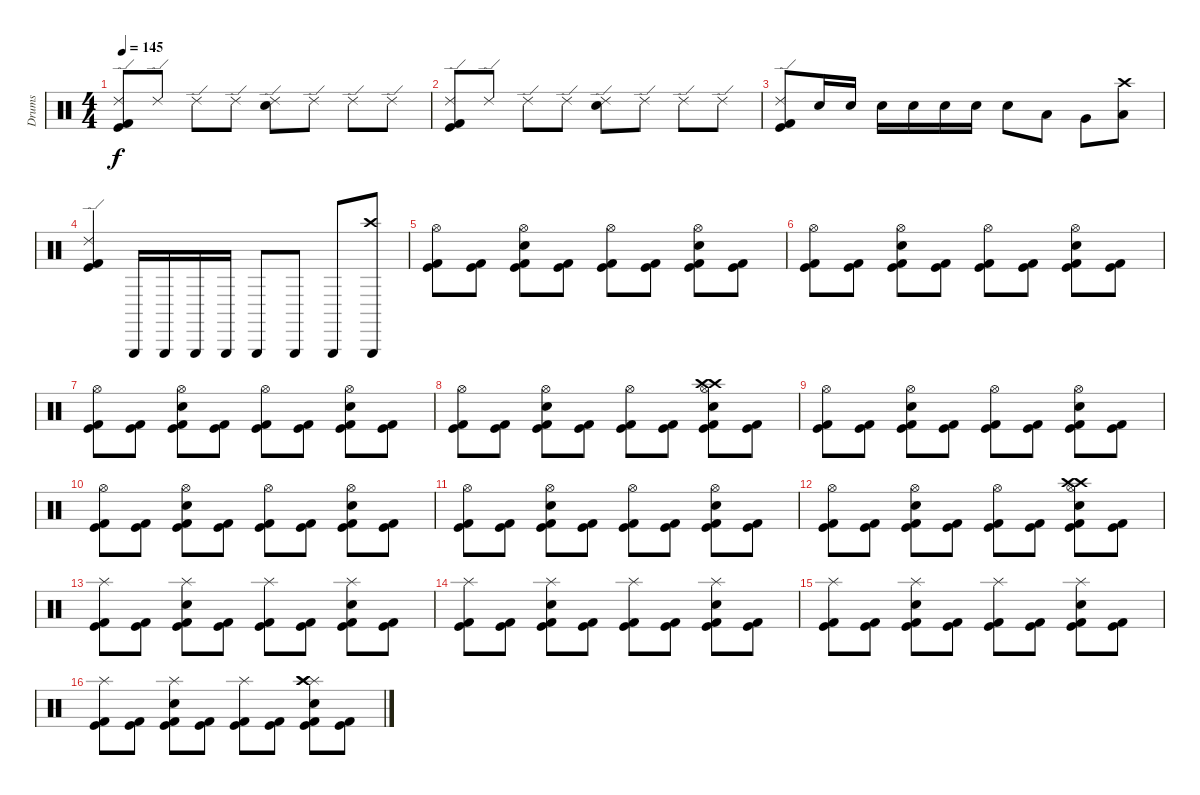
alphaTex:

\track ("Drums" "Drums") {instrument percussion}
\staff {score}
\articulation defaults
\ts (4 4)
\tempo 145
\clef neutral
\ks c
("Ride (edge) 2" "Kick (hit) 2" "Kick (hit)").8{dy f} "Ride (edge) 2".8 "Ride (edge) 2".8 "Ride (edge) 2".8 ("Ride (edge) 2" "Snare (hit) 2").8 "Ride (edge) 2".8 "Ride (edge) 2".8 "Ride (edge) 2".8 |
("Ride (edge) 2" "Kick (hit) 2" "Kick (hit)").8 "Ride (edge) 2".8 "Ride (edge) 2".8 "Ride (edge) 2".8 ("Ride (edge) 2" "Snare (hit) 2").8 "Ride (edge) 2".8 "Ride (edge) 2".8 "Ride (edge) 2".8 |
("Ride (edge) 2" "Kick (hit) 2" "Kick (hit)").8 "Snare (hit) 2".16 "Snare (hit) 2".16 "Snare (hit) 2".16 "Snare (hit) 2".16 "Snare (hit) 2".16 "Snare (hit) 2".16 "Snare (hit) 2".8 "Low Tom (hit)".8 "Very Low Tom (hit)".8 ("Crash high (hit)" "Low Floor Tom (hit)").8 |
("Ride (edge) 2" "Kick (hit) 2" "Kick (hit)").4 "Triangle (hit)".16 "Triangle (hit)".16 "Triangle (hit)".16 "Triangle (hit)".16 "Triangle (hit)".8 "Triangle (hit)".8 "Triangle (hit)".8 ("Triangle (hit)" "Crash high (hit)").8 |
("Hi-Hat (open)" "Kick (hit) 2" "Kick (hit)").8 ("Kick (hit) 2" "Kick (hit)").8 ("Hi-Hat (open)" "Snare (hit) 2" "Kick (hit) 2" "Kick (hit)").8 ("Kick (hit) 2" "Kick (hit)").8 ("Hi-Hat (open)" "Kick (hit) 2" "Kick (hit)").8 ("Kick (hit) 2" "Kick (hit)").8 ("Hi-Hat (open)" "Snare (hit) 2" "Kick (hit) 2" "Kick (hit)").8 ("Kick (hit) 2" "Kick (hit)").8 |
("Hi-Hat (open)" "Kick (hit) 2" "Kick (hit)").8 ("Kick (hit) 2" "Kick (hit)").8 ("Hi-Hat (open)" "Snare (hit) 2" "Kick (hit) 2" "Kick (hit)").8 ("Kick (hit) 2" "Kick (hit)").8 ("Hi-Hat (open)" "Kick (hit) 2" "Kick (hit)").8 ("Kick (hit) 2" "Kick (hit)").8 ("Hi-Hat (open)" "Snare (hit) 2" "Kick (hit) 2" "Kick (hit)").8 ("Kick (hit) 2" "Kick (hit)").8 |
("Hi-Hat (open)" "Kick (hit) 2" "Kick (hit)").8 ("Kick (hit) 2" "Kick (hit)").8 ("Hi-Hat (open)" "Snare (hit) 2" "Kick (hit) 2" "Kick (hit)").8 ("Kick (hit) 2" "Kick (hit)").8 ("Hi-Hat (open)" "Kick (hit) 2" "Kick (hit)").8 ("Kick (hit) 2" "Kick (hit)").8 ("Hi-Hat (open)" "Snare (hit) 2" "Kick (hit) 2" "Kick (hit)").8 ("Kick (hit) 2" "Kick (hit)").8 |
("Hi-Hat (open)" "Kick (hit) 2" "Kick (hit)").8 ("Kick (hit) 2" "Kick (hit)").8 ("Hi-Hat (open)" "Snare (hit) 2" "Kick (hit) 2" "Kick (hit)").8 ("Kick (hit) 2" "Kick (hit)").8 ("Hi-Hat (open)" "Kick (hit) 2" "Kick (hit)").8 ("Kick (hit) 2" "Kick (hit)").8 ("Hi-Hat (open)" "Snare (hit) 2" "Kick (hit) 2" "Kick (hit)" "Crash high (hit)" "Crash high (hit)").8 ("Kick (hit) 2" "Kick (hit)").8 |
("Hi-Hat (open)" "Kick (hit) 2" "Kick (hit)").8 ("Kick (hit) 2" "Kick (hit)").8 ("Hi-Hat (open)" "Snare (hit) 2" "Kick (hit) 2" "Kick (hit)").8 ("Kick (hit) 2" "Kick (hit)").8 ("Hi-Hat (open)" "Kick (hit) 2" "Kick (hit)").8 ("Kick (hit) 2" "Kick (hit)").8 ("Hi-Hat (open)" "Snare (hit) 2" "Kick (hit) 2" "Kick (hit)").8 ("Kick (hit) 2" "Kick (hit)").8 |
("Hi-Hat (open)" "Kick (hit) 2" "Kick (hit)").8 ("Kick (hit) 2" "Kick (hit)").8 ("Hi-Hat (open)" "Snare (hit) 2" "Kick (hit) 2" "Kick (hit)").8 ("Kick (hit) 2" "Kick (hit)").8 ("Hi-Hat (open)" "Kick (hit) 2" "Kick (hit)").8 ("Kick (hit) 2" "Kick (hit)").8 ("Hi-Hat (open)" "Snare (hit) 2" "Kick (hit) 2" "Kick (hit)").8 ("Kick (hit) 2" "Kick (hit)").8 |
("Hi-Hat (open)" "Kick (hit) 2" "Kick (hit)").8 ("Kick (hit) 2" "Kick (hit)").8 ("Hi-Hat (open)" "Snare (hit) 2" "Kick (hit) 2" "Kick (hit)").8 ("Kick (hit) 2" "Kick (hit)").8 ("Hi-Hat (open)" "Kick (hit) 2" "Kick (hit)").8 ("Kick (hit) 2" "Kick (hit)").8 ("Hi-Hat (open)" "Snare (hit) 2" "Kick (hit) 2" "Kick (hit)").8 ("Kick (hit) 2" "Kick (hit)").8 |
("Hi-Hat (open)" "Kick (hit) 2" "Kick (hit)").8 ("Kick (hit) 2" "Kick (hit)").8 ("Hi-Hat (open)" "Snare (hit) 2" "Kick (hit) 2" "Kick (hit)").8 ("Kick (hit) 2" "Kick (hit)").8 ("Hi-Hat (open)" "Kick (hit) 2" "Kick (hit)").8 ("Kick (hit) 2" "Kick (hit)").8 ("Hi-Hat (open)" "Snare (hit) 2" "Kick (hit) 2" "Kick (hit)" "Crash high (hit)" "Crash high (hit)").8 ("Kick (hit) 2" "Kick (hit)").8 |
("Splash (hit)" "Kick (hit) 2" "Kick (hit)").8 ("Kick (hit) 2" "Kick (hit)").8 ("Splash (hit)" "Snare (hit) 2" "Kick (hit) 2" "Kick (hit)").8 ("Kick (hit) 2" "Kick (hit)").8 ("Splash (hit)" "Kick (hit) 2" "Kick (hit)").8 ("Kick (hit) 2" "Kick (hit)").8 ("Splash (hit)" "Snare (hit) 2" "Kick (hit) 2" "Kick (hit)").8 ("Kick (hit) 2" "Kick (hit)").8 |
("Splash (hit)" "Kick (hit) 2" "Kick (hit)").8 ("Kick (hit) 2" "Kick (hit)").8 ("Splash (hit)" "Snare (hit) 2" "Kick (hit) 2" "Kick (hit)").8 ("Kick (hit) 2" "Kick (hit)").8 ("Splash (hit)" "Kick (hit) 2" "Kick (hit)").8 ("Kick (hit) 2" "Kick (hit)").8 ("Splash (hit)" "Snare (hit) 2" "Kick (hit) 2" "Kick (hit)").8 ("Kick (hit) 2" "Kick (hit)").8 |
("Splash (hit)" "Kick (hit) 2" "Kick (hit)").8 ("Kick (hit) 2" "Kick (hit)").8 ("Splash (hit)" "Snare (hit) 2" "Kick (hit) 2" "Kick (hit)").8 ("Kick (hit) 2" "Kick (hit)").8 ("Splash (hit)" "Kick (hit) 2" "Kick (hit)").8 ("Kick (hit) 2" "Kick (hit)").8 ("Splash (hit)" "Snare (hit) 2" "Kick (hit) 2" "Kick (hit)").8 ("Kick (hit) 2" "Kick (hit)").8 |
("Splash (hit)" "Kick (hit) 2" "Kick (hit)").8 ("Kick (hit) 2" "Kick (hit)").8 ("Splash (hit)" "Snare (hit) 2" "Kick (hit) 2" "Kick (hit)").8 ("Kick (hit) 2" "Kick (hit)").8 ("Splash (hit)" "Kick (hit) 2" "Kick (hit)").8 ("Kick (hit) 2" "Kick (hit)").8 ("Splash (hit)" "Snare (hit) 2" "Kick (hit) 2" "Kick (hit)" "Crash high (hit)" "Crash high (hit)").8 ("Kick (hit) 2" "Kick (hit)").8
